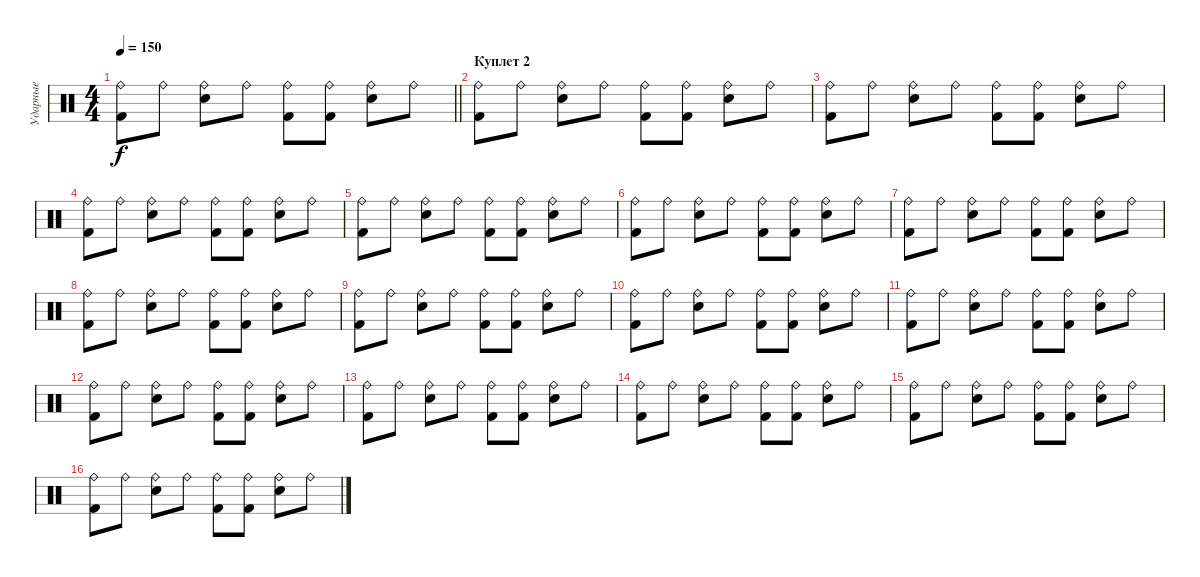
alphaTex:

\track ("Ударные" "Ударные") {instrument percussion}
\staff {score}
\articulation defaults
\ts (4 4)
\tempo 150
\clef neutral
\barLineRight lightlight
\ks c
("Ride (bell)" "Kick (hit) 2").8{dy f} "Ride (bell)".8 ("Ride (bell)" "Electric Snare (hit)").8 "Ride (bell)".8 ("Ride (bell)" "Kick (hit) 2").8 ("Ride (bell)" "Kick (hit) 2").8 ("Ride (bell)" "Electric Snare (hit)").8 "Ride (bell)".8 |
\section ("" "Куплет 2")
("Ride (bell)" "Kick (hit) 2").8 "Ride (bell)".8 ("Ride (bell)" "Electric Snare (hit)").8 "Ride (bell)".8 ("Ride (bell)" "Kick (hit) 2").8 ("Ride (bell)" "Kick (hit) 2").8 ("Ride (bell)" "Electric Snare (hit)").8 "Ride (bell)".8 |
("Ride (bell)" "Kick (hit) 2").8 "Ride (bell)".8 ("Ride (bell)" "Electric Snare (hit)").8 "Ride (bell)".8 ("Ride (bell)" "Kick (hit) 2").8 ("Ride (bell)" "Kick (hit) 2").8 ("Ride (bell)" "Electric Snare (hit)").8 "Ride (bell)".8 |
("Ride (bell)" "Kick (hit) 2").8 "Ride (bell)".8 ("Ride (bell)" "Electric Snare (hit)").8 "Ride (bell)".8 ("Ride (bell)" "Kick (hit) 2").8 ("Ride (bell)" "Kick (hit) 2").8 ("Ride (bell)" "Electric Snare (hit)").8 "Ride (bell)".8 |
("Ride (bell)" "Kick (hit) 2").8 "Ride (bell)".8 ("Ride (bell)" "Electric Snare (hit)").8 "Ride (bell)".8 ("Ride (bell)" "Kick (hit) 2").8 ("Ride (bell)" "Kick (hit) 2").8 ("Ride (bell)" "Electric Snare (hit)").8 "Ride (bell)".8 |
("Ride (bell)" "Kick (hit) 2").8 "Ride (bell)".8 ("Ride (bell)" "Electric Snare (hit)").8 "Ride (bell)".8 ("Ride (bell)" "Kick (hit) 2").8 ("Ride (bell)" "Kick (hit) 2").8 ("Ride (bell)" "Electric Snare (hit)").8 "Ride (bell)".8 |
("Ride (bell)" "Kick (hit) 2").8 "Ride (bell)".8 ("Ride (bell)" "Electric Snare (hit)").8 "Ride (bell)".8 ("Ride (bell)" "Kick (hit) 2").8 ("Ride (bell)" "Kick (hit) 2").8 ("Ride (bell)" "Electric Snare (hit)").8 "Ride (bell)".8 |
("Ride (bell)" "Kick (hit) 2").8 "Ride (bell)".8 ("Ride (bell)" "Electric Snare (hit)").8 "Ride (bell)".8 ("Ride (bell)" "Kick (hit) 2").8 ("Ride (bell)" "Kick (hit) 2").8 ("Ride (bell)" "Electric Snare (hit)").8 "Ride (bell)".8 |
("Ride (bell)" "Kick (hit) 2").8 "Ride (bell)".8 ("Ride (bell)" "Electric Snare (hit)").8 "Ride (bell)".8 ("Ride (bell)" "Kick (hit) 2").8 ("Ride (bell)" "Kick (hit) 2").8 ("Ride (bell)" "Electric Snare (hit)").8 "Ride (bell)".8 |
("Ride (bell)" "Kick (hit) 2").8 "Ride (bell)".8 ("Ride (bell)" "Electric Snare (hit)").8 "Ride (bell)".8 ("Ride (bell)" "Kick (hit) 2").8 ("Ride (bell)" "Kick (hit) 2").8 ("Ride (bell)" "Electric Snare (hit)").8 "Ride (bell)".8 |
("Ride (bell)" "Kick (hit) 2").8 "Ride (bell)".8 ("Ride (bell)" "Electric Snare (hit)").8 "Ride (bell)".8 ("Ride (bell)" "Kick (hit) 2").8 ("Ride (bell)" "Kick (hit) 2").8 ("Ride (bell)" "Electric Snare (hit)").8 "Ride (bell)".8 |
("Ride (bell)" "Kick (hit) 2").8 "Ride (bell)".8 ("Ride (bell)" "Electric Snare (hit)").8 "Ride (bell)".8 ("Ride (bell)" "Kick (hit) 2").8 ("Ride (bell)" "Kick (hit) 2").8 ("Ride (bell)" "Electric Snare (hit)").8 "Ride (bell)".8 |
("Ride (bell)" "Kick (hit) 2").8 "Ride (bell)".8 ("Ride (bell)" "Electric Snare (hit)").8 "Ride (bell)".8 ("Ride (bell)" "Kick (hit) 2").8 ("Ride (bell)" "Kick (hit) 2").8 ("Ride (bell)" "Electric Snare (hit)").8 "Ride (bell)".8 |
("Ride (bell)" "Kick (hit) 2").8 "Ride (bell)".8 ("Ride (bell)" "Electric Snare (hit)").8 "Ride (bell)".8 ("Ride (bell)" "Kick (hit) 2").8 ("Ride (bell)" "Kick (hit) 2").8 ("Ride (bell)" "Electric Snare (hit)").8 "Ride (bell)".8 |
("Ride (bell)" "Kick (hit) 2").8 "Ride (bell)".8 ("Ride (bell)" "Electric Snare (hit)").8 "Ride (bell)".8 ("Ride (bell)" "Kick (hit) 2").8 ("Ride (bell)" "Kick (hit) 2").8 ("Ride (bell)" "Electric Snare (hit)").8 "Ride (bell)".8 |
("Ride (bell)" "Kick (hit) 2").8 "Ride (bell)".8 ("Ride (bell)" "Electric Snare (hit)").8 "Ride (bell)".8 ("Ride (bell)" "Kick (hit) 2").8 ("Ride (bell)" "Kick (hit) 2").8 ("Ride (bell)" "Electric Snare (hit)").8 "Ride (bell)".8
